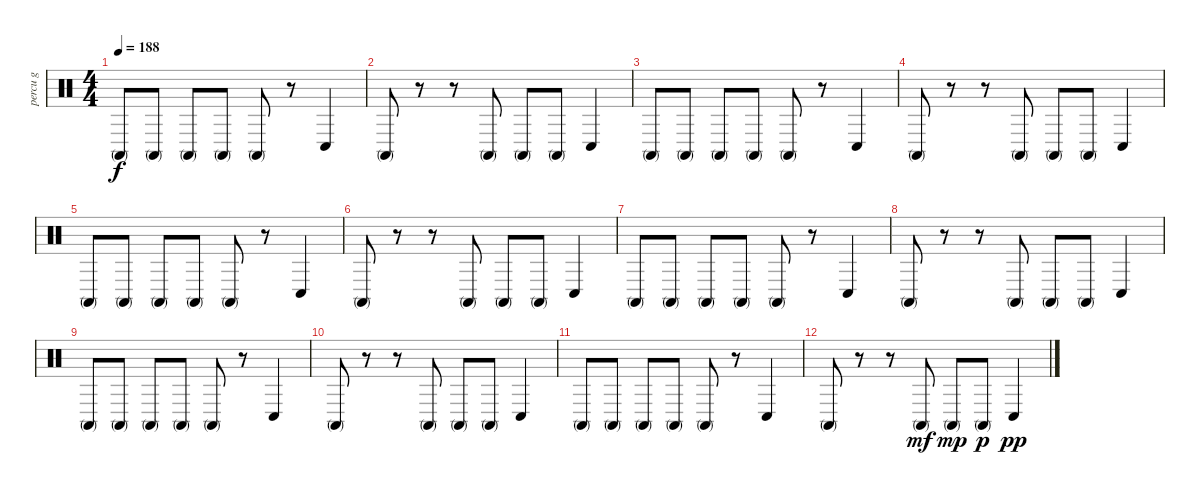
\track ("percu g" "percu g") {instrument percussion}
\staff {score}
\articulation defaults
\ts (4 4)
\tempo 188
\clef neutral
\ks c "Conga high (mute)".8{dy f} "Conga high (mute)".8 "Conga high (mute)".8 "Conga high (mute)".8 "Conga high (mute)".8
r.8 "Conga low (hit)".4 |
"Conga high (mute)".8 r.8 r.8 "Conga high (mute)".8 "Conga high (mute)".8 "Conga high (mute)".8 "Conga low (hit)".4 |
"Conga high (mute)".8 "Conga high (mute)".8 "Conga high (mute)".8 "Conga high (mute)".8 "Conga high (mute)".8 r.8 "Conga low (hit)".4 |
"Conga high (mute)".8 r.8 r.8 "Conga high (mute)".8 "Conga high (mute)".8 "Conga high (mute)".8 "Conga low (hit)".4 |
"Conga high (mute)".8 "Conga high (mute)".8 "Conga high (mute)".8 "Conga high (mute)".8 "Conga high (mute)".8 r.8 "Conga low (hit)".4 |
"Conga high (mute)".8 r.8 r.8 "Conga high (mute)".8 "Conga high (mute)".8 "Conga high (mute)".8 "Conga low (hit)".4 |
"Conga high (mute)".8 "Conga high (mute)".8 "Conga high (mute)".8 "Conga high (mute)".8 "Conga high (mute)".8 r.8 "Conga low (hit)".4 |
"Conga high (mute)".8 r.8 r.8 "Conga high (mute)".8 "Conga high (mute)".8 "Conga high (mute)".8 "Conga low (hit)".4 |
"Conga high (mute)".8 "Conga high (mute)".8 "Conga high (mute)".8 "Conga high (mute)".8 "Conga high (mute)".8 r.8 "Conga low (hit)".4 |
"Conga high (mute)".8 r.8 r.8 "Conga high (mute)".8 "Conga high (mute)".8 "Conga high (mute)".8 "Conga low (hit)".4 |
"Conga high (mute)".8 "Conga high (mute)".8 "Conga high (mute)".8 "Conga high (mute)".8 "Conga high (mute)".8 r.8 "Conga low (hit)".4 |
"Conga high (mute)".8 r.8 r.8 "Conga high (mute)".8{dy mf} "Conga high (mute)".8{dy mp} "Conga high (mute)".8{dy p} "Conga low (hit)".4{dy pp}
